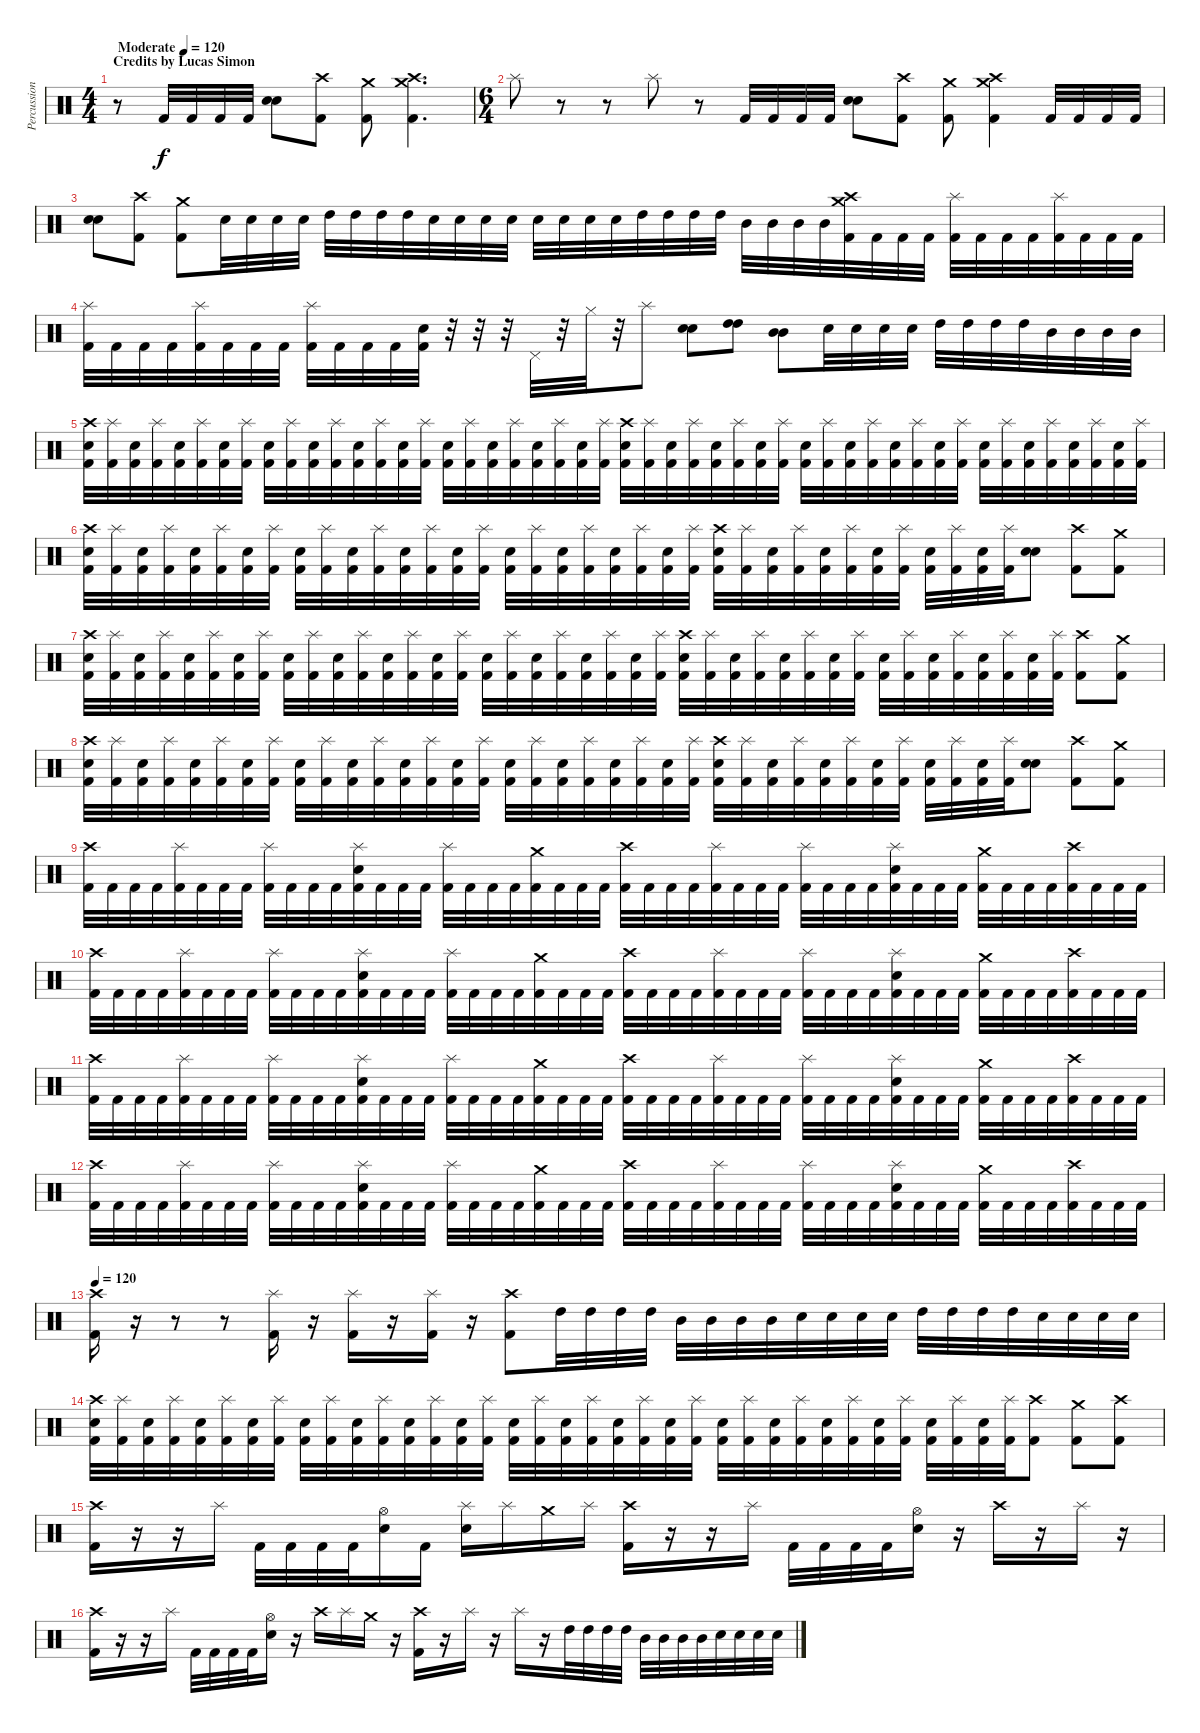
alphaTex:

\track ("Percussion" "Percussion") {instrument percussion}
\staff {score}
\articulation defaults
\ts (4 4)
\section ("" "Credits by Lucas Simon")
\tempo (120 "Moderate")
\tempo 110
\tempo (120 "Moderate")
\clef neutral
\ks c
r.8{dy f} "Kick (hit) 2".32 "Kick (hit) 2".32 "Kick (hit) 2".32 "Kick (hit) 2".32 ("Electric Snare (hit)" "Electric Snare (hit)").8 ("Kick (hit) 2" "Crash high (hit)").8 ("Kick (hit) 2" "Crash medium (hit)").8 ("Kick (hit) 2" "Crash medium (hit)" "Crash high (hit)").4{d} |
\ts (6 4)
"Splash (hit)".8 r.8 r.8 "Splash (hit)".8 r.8 "Kick (hit) 2".32 "Kick (hit) 2".32 "Kick (hit) 2".32 "Kick (hit) 2".32 ("Electric Snare (hit)" "Electric Snare (hit)").8 ("Kick (hit) 2" "Crash high (hit)").8 ("Kick (hit) 2" "Crash medium (hit)").8 ("Kick (hit) 2" "Crash medium (hit)" "Crash high (hit)").4 "Kick (hit) 2".32 "Kick (hit) 2".32 "Kick (hit) 2".32 "Kick (hit) 2".32 |
("Electric Snare (hit)" "Electric Snare (hit)").8 ("Kick (hit) 2" "Crash high (hit)").8 ("Kick (hit) 2" "Crash medium (hit)").8 "Electric Snare (hit)".32 "Electric Snare (hit)".32 "Electric Snare (hit)".32 "Electric Snare (hit)".32 "High Tom (hit)".32 "High Tom (hit)".32 "High Tom (hit)".32 "High Tom (hit)".32 "Electric Snare (hit)".32 "Electric Snare (hit)".32 "Electric Snare (hit)".32 "Electric Snare (hit)".32 "Electric Snare (hit)".32 "Electric Snare (hit)".32 "Electric Snare (hit)".32 "Electric Snare (hit)".32 "High Tom (hit)".32 "High Tom (hit)".32 "High Tom (hit)".32 "High Tom (hit)".32 "Mid Tom (hit)".32 "Mid Tom (hit)".32 "Mid Tom (hit)".32 "Mid Tom (hit)".32 ("Kick (hit) 2" "Crash medium (hit)" "Crash high (hit)").32 "Kick (hit) 2".32 "Kick (hit) 2".32 "Kick (hit) 2".32 ("Kick (hit) 2" "Splash (hit)").32 "Kick (hit) 2".32 "Kick (hit) 2".32 "Kick (hit) 2".32 ("Kick (hit) 2" "Splash (hit)").32 "Kick (hit) 2".32 "Kick (hit) 2".32 "Kick (hit) 2".32 |
("Kick (hit) 2" "Splash (hit)").32 "Kick (hit) 2".32 "Kick (hit) 2".32 "Kick (hit) 2".32 ("Kick (hit) 2" "Splash (hit)").32 "Kick (hit) 2".32 "Kick (hit) 2".32 "Kick (hit) 2".32 ("Kick (hit) 2" "Splash (hit)").32 "Kick (hit) 2".32 "Kick (hit) 2".32 "Kick (hit) 2".32 ("Kick (hit) 2" "Electric Snare (hit)").32 r.32 r.32 r.32 "Pedal Hi-Hat (hit)".32 r.32 "Hi-Hat (closed)".32 r.32 "Splash (hit)".8 ("Electric Snare (hit)" "Electric Snare (hit)").8 ("High Tom (hit)" "High Tom (hit)").8 ("Mid Tom (hit)" "Mid Tom (hit)").8 "Electric Snare (hit)".32 "Electric Snare (hit)".32 "Electric Snare (hit)".32 "Electric Snare (hit)".32 "High Tom (hit)".32 "High Tom (hit)".32 "High Tom (hit)".32 "High Tom (hit)".32 "Mid Tom (hit)".32 "Mid Tom (hit)".32 "Mid Tom (hit)".32 "Mid Tom (hit)".32 |
("Kick (hit) 2" "Electric Snare (hit)" "Crash high (hit)").32 ("Kick (hit) 2" "Splash (hit)").32 ("Kick (hit) 2" "Electric Snare (hit)").32 ("Kick (hit) 2" "Splash (hit)").32 ("Kick (hit) 2" "Electric Snare (hit)").32 ("Kick (hit) 2" "Splash (hit)").32 ("Kick (hit) 2" "Electric Snare (hit)").32 ("Kick (hit) 2" "Splash (hit)").32 ("Kick (hit) 2" "Electric Snare (hit)").32 ("Kick (hit) 2" "Splash (hit)").32 ("Kick (hit) 2" "Electric Snare (hit)").32 ("Kick (hit) 2" "Splash (hit)").32 ("Kick (hit) 2" "Electric Snare (hit)").32 ("Kick (hit) 2" "Splash (hit)").32 ("Kick (hit) 2" "Electric Snare (hit)").32 ("Kick (hit) 2" "Splash (hit)").32 ("Kick (hit) 2" "Electric Snare (hit)").32 ("Kick (hit) 2" "Splash (hit)").32 ("Kick (hit) 2" "Electric Snare (hit)").32 ("Kick (hit) 2" "Splash (hit)").32 ("Kick (hit) 2" "Electric Snare (hit)").32 ("Kick (hit) 2" "Splash (hit)").32 ("Kick (hit) 2" "Electric Snare (hit)").32 ("Kick (hit) 2" "Splash (hit)").32 ("Kick (hit) 2" "Electric Snare (hit)" "Crash high (hit)").32 ("Kick (hit) 2" "Splash (hit)").32 ("Kick (hit) 2" "Electric Snare (hit)").32 ("Kick (hit) 2" "Splash (hit)").32 ("Kick (hit) 2" "Electric Snare (hit)").32 ("Kick (hit) 2" "Splash (hit)").32 ("Kick (hit) 2" "Electric Snare (hit)").32 ("Kick (hit) 2" "Splash (hit)").32 ("Kick (hit) 2" "Electric Snare (hit)").32 ("Kick (hit) 2" "Splash (hit)").32 ("Kick (hit) 2" "Electric Snare (hit)").32 ("Kick (hit) 2" "Splash (hit)").32 ("Kick (hit) 2" "Electric Snare (hit)").32 ("Kick (hit) 2" "Splash (hit)").32 ("Kick (hit) 2" "Electric Snare (hit)").32 ("Kick (hit) 2" "Splash (hit)").32 ("Kick (hit) 2" "Electric Snare (hit)").32 ("Kick (hit) 2" "Splash (hit)").32 ("Kick (hit) 2" "Electric Snare (hit)").32 ("Kick (hit) 2" "Splash (hit)").32 ("Kick (hit) 2" "Electric Snare (hit)").32 ("Kick (hit) 2" "Splash (hit)").32 ("Kick (hit) 2" "Electric Snare (hit)").32 ("Kick (hit) 2" "Splash (hit)").32 |
("Kick (hit) 2" "Electric Snare (hit)" "Crash high (hit)").32 ("Kick (hit) 2" "Splash (hit)").32 ("Kick (hit) 2" "Electric Snare (hit)").32 ("Kick (hit) 2" "Splash (hit)").32 ("Kick (hit) 2" "Electric Snare (hit)").32 ("Kick (hit) 2" "Splash (hit)").32 ("Kick (hit) 2" "Electric Snare (hit)").32 ("Kick (hit) 2" "Splash (hit)").32 ("Kick (hit) 2" "Electric Snare (hit)").32 ("Kick (hit) 2" "Splash (hit)").32 ("Kick (hit) 2" "Electric Snare (hit)").32 ("Kick (hit) 2" "Splash (hit)").32 ("Kick (hit) 2" "Electric Snare (hit)").32 ("Kick (hit) 2" "Splash (hit)").32 ("Kick (hit) 2" "Electric Snare (hit)").32 ("Kick (hit) 2" "Splash (hit)").32 ("Kick (hit) 2" "Electric Snare (hit)").32 ("Kick (hit) 2" "Splash (hit)").32 ("Kick (hit) 2" "Electric Snare (hit)").32 ("Kick (hit) 2" "Splash (hit)").32 ("Kick (hit) 2" "Electric Snare (hit)").32 ("Kick (hit) 2" "Splash (hit)").32 ("Kick (hit) 2" "Electric Snare (hit)").32 ("Kick (hit) 2" "Splash (hit)").32 ("Kick (hit) 2" "Electric Snare (hit)" "Crash high (hit)").32 ("Kick (hit) 2" "Splash (hit)").32 ("Kick (hit) 2" "Electric Snare (hit)").32 ("Kick (hit) 2" "Splash (hit)").32 ("Kick (hit) 2" "Electric Snare (hit)").32 ("Kick (hit) 2" "Splash (hit)").32 ("Kick (hit) 2" "Electric Snare (hit)").32 ("Kick (hit) 2" "Splash (hit)").32 ("Kick (hit) 2" "Electric Snare (hit)").32 ("Kick (hit) 2" "Splash (hit)").32 ("Kick (hit) 2" "Electric Snare (hit)").32 ("Kick (hit) 2" "Splash (hit)").32 ("Electric Snare (hit)" "Electric Snare (hit)").8 ("Kick (hit) 2" "Crash high (hit)").8 ("Kick (hit) 2" "Crash medium (hit)").8 |
("Kick (hit) 2" "Electric Snare (hit)" "Crash high (hit)").32 ("Kick (hit) 2" "Splash (hit)").32 ("Kick (hit) 2" "Electric Snare (hit)").32 ("Kick (hit) 2" "Splash (hit)").32 ("Kick (hit) 2" "Electric Snare (hit)").32 ("Kick (hit) 2" "Splash (hit)").32 ("Kick (hit) 2" "Electric Snare (hit)").32 ("Kick (hit) 2" "Splash (hit)").32 ("Kick (hit) 2" "Electric Snare (hit)").32 ("Kick (hit) 2" "Splash (hit)").32 ("Kick (hit) 2" "Electric Snare (hit)").32 ("Kick (hit) 2" "Splash (hit)").32 ("Kick (hit) 2" "Electric Snare (hit)").32 ("Kick (hit) 2" "Splash (hit)").32 ("Kick (hit) 2" "Electric Snare (hit)").32 ("Kick (hit) 2" "Splash (hit)").32 ("Kick (hit) 2" "Electric Snare (hit)").32 ("Kick (hit) 2" "Splash (hit)").32 ("Kick (hit) 2" "Electric Snare (hit)").32 ("Kick (hit) 2" "Splash (hit)").32 ("Kick (hit) 2" "Electric Snare (hit)").32 ("Kick (hit) 2" "Splash (hit)").32 ("Kick (hit) 2" "Electric Snare (hit)").32 ("Kick (hit) 2" "Splash (hit)").32 ("Kick (hit) 2" "Electric Snare (hit)" "Crash high (hit)").32 ("Kick (hit) 2" "Splash (hit)").32 ("Kick (hit) 2" "Electric Snare (hit)").32 ("Kick (hit) 2" "Splash (hit)").32 ("Kick (hit) 2" "Electric Snare (hit)").32 ("Kick (hit) 2" "Splash (hit)").32 ("Kick (hit) 2" "Electric Snare (hit)").32 ("Kick (hit) 2" "Splash (hit)").32 ("Kick (hit) 2" "Electric Snare (hit)").32 ("Kick (hit) 2" "Splash (hit)").32 ("Kick (hit) 2" "Electric Snare (hit)").32 ("Kick (hit) 2" "Splash (hit)").32 ("Kick (hit) 2" "Electric Snare (hit)").32 ("Kick (hit) 2" "Splash (hit)").32 ("Kick (hit) 2" "Electric Snare (hit)").32 ("Kick (hit) 2" "Splash (hit)").32 ("Kick (hit) 2" "Crash high (hit)").8 ("Kick (hit) 2" "Crash medium (hit)").8 |
("Kick (hit) 2" "Electric Snare (hit)" "Crash high (hit)").32 ("Kick (hit) 2" "Splash (hit)").32 ("Kick (hit) 2" "Electric Snare (hit)").32 ("Kick (hit) 2" "Splash (hit)").32 ("Kick (hit) 2" "Electric Snare (hit)").32 ("Kick (hit) 2" "Splash (hit)").32 ("Kick (hit) 2" "Electric Snare (hit)").32 ("Kick (hit) 2" "Splash (hit)").32 ("Kick (hit) 2" "Electric Snare (hit)").32 ("Kick (hit) 2" "Splash (hit)").32 ("Kick (hit) 2" "Electric Snare (hit)").32 ("Kick (hit) 2" "Splash (hit)").32 ("Kick (hit) 2" "Electric Snare (hit)").32 ("Kick (hit) 2" "Splash (hit)").32 ("Kick (hit) 2" "Electric Snare (hit)").32 ("Kick (hit) 2" "Splash (hit)").32 ("Kick (hit) 2" "Electric Snare (hit)").32 ("Kick (hit) 2" "Splash (hit)").32 ("Kick (hit) 2" "Electric Snare (hit)").32 ("Kick (hit) 2" "Splash (hit)").32 ("Kick (hit) 2" "Electric Snare (hit)").32 ("Kick (hit) 2" "Splash (hit)").32 ("Kick (hit) 2" "Electric Snare (hit)").32 ("Kick (hit) 2" "Splash (hit)").32 ("Kick (hit) 2" "Electric Snare (hit)" "Crash high (hit)").32 ("Kick (hit) 2" "Splash (hit)").32 ("Kick (hit) 2" "Electric Snare (hit)").32 ("Kick (hit) 2" "Splash (hit)").32 ("Kick (hit) 2" "Electric Snare (hit)").32 ("Kick (hit) 2" "Splash (hit)").32 ("Kick (hit) 2" "Electric Snare (hit)").32 ("Kick (hit) 2" "Splash (hit)").32 ("Kick (hit) 2" "Electric Snare (hit)").32 ("Kick (hit) 2" "Splash (hit)").32 ("Kick (hit) 2" "Electric Snare (hit)").32 ("Kick (hit) 2" "Splash (hit)").32 ("Electric Snare (hit)" "Electric Snare (hit)").8 ("Kick (hit) 2" "Crash high (hit)").8 ("Kick (hit) 2" "Crash medium (hit)").8 |
("Kick (hit) 2" "Crash high (hit)").32 "Kick (hit) 2".32 "Kick (hit) 2".32 "Kick (hit) 2".32 ("Kick (hit) 2" "Splash (hit)").32 "Kick (hit) 2".32 "Kick (hit) 2".32 "Kick (hit) 2".32 ("Kick (hit) 2" "Splash (hit)").32 "Kick (hit) 2".32 "Kick (hit) 2".32 "Kick (hit) 2".32 ("Kick (hit) 2" "Electric Snare (hit)" "Splash (hit)").32 "Kick (hit) 2".32 "Kick (hit) 2".32 "Kick (hit) 2".32 ("Kick (hit) 2" "Splash (hit)").32 "Kick (hit) 2".32 "Kick (hit) 2".32 "Kick (hit) 2".32 ("Kick (hit) 2" "Crash medium (hit)").32 "Kick (hit) 2".32 "Kick (hit) 2".32 "Kick (hit) 2".32 ("Kick (hit) 2" "Crash high (hit)").32 "Kick (hit) 2".32 "Kick (hit) 2".32 "Kick (hit) 2".32 ("Kick (hit) 2" "Splash (hit)").32 "Kick (hit) 2".32 "Kick (hit) 2".32 "Kick (hit) 2".32 ("Kick (hit) 2" "Splash (hit)").32 "Kick (hit) 2".32 "Kick (hit) 2".32 "Kick (hit) 2".32 ("Kick (hit) 2" "Electric Snare (hit)" "Splash (hit)").32 "Kick (hit) 2".32 "Kick (hit) 2".32 "Kick (hit) 2".32 ("Kick (hit) 2" "Crash medium (hit)").32 "Kick (hit) 2".32 "Kick (hit) 2".32 "Kick (hit) 2".32 ("Kick (hit) 2" "Crash high (hit)").32 "Kick (hit) 2".32 "Kick (hit) 2".32 "Kick (hit) 2".32 |
("Kick (hit) 2" "Crash high (hit)").32 "Kick (hit) 2".32 "Kick (hit) 2".32 "Kick (hit) 2".32 ("Kick (hit) 2" "Splash (hit)").32 "Kick (hit) 2".32 "Kick (hit) 2".32 "Kick (hit) 2".32 ("Kick (hit) 2" "Splash (hit)").32 "Kick (hit) 2".32 "Kick (hit) 2".32 "Kick (hit) 2".32 ("Kick (hit) 2" "Electric Snare (hit)" "Splash (hit)").32 "Kick (hit) 2".32 "Kick (hit) 2".32 "Kick (hit) 2".32 ("Kick (hit) 2" "Splash (hit)").32 "Kick (hit) 2".32 "Kick (hit) 2".32 "Kick (hit) 2".32 ("Kick (hit) 2" "Crash medium (hit)").32 "Kick (hit) 2".32 "Kick (hit) 2".32 "Kick (hit) 2".32 ("Kick (hit) 2" "Crash high (hit)").32 "Kick (hit) 2".32 "Kick (hit) 2".32 "Kick (hit) 2".32 ("Kick (hit) 2" "Splash (hit)").32 "Kick (hit) 2".32 "Kick (hit) 2".32 "Kick (hit) 2".32 ("Kick (hit) 2" "Splash (hit)").32 "Kick (hit) 2".32 "Kick (hit) 2".32 "Kick (hit) 2".32 ("Kick (hit) 2" "Electric Snare (hit)" "Splash (hit)").32 "Kick (hit) 2".32 "Kick (hit) 2".32 "Kick (hit) 2".32 ("Kick (hit) 2" "Crash medium (hit)").32 "Kick (hit) 2".32 "Kick (hit) 2".32 "Kick (hit) 2".32 ("Kick (hit) 2" "Crash high (hit)").32 "Kick (hit) 2".32 "Kick (hit) 2".32 "Kick (hit) 2".32 |
("Kick (hit) 2" "Crash high (hit)").32 "Kick (hit) 2".32 "Kick (hit) 2".32 "Kick (hit) 2".32 ("Kick (hit) 2" "Splash (hit)").32 "Kick (hit) 2".32 "Kick (hit) 2".32 "Kick (hit) 2".32 ("Kick (hit) 2" "Splash (hit)").32 "Kick (hit) 2".32 "Kick (hit) 2".32 "Kick (hit) 2".32 ("Kick (hit) 2" "Electric Snare (hit)" "Splash (hit)").32 "Kick (hit) 2".32 "Kick (hit) 2".32 "Kick (hit) 2".32 ("Kick (hit) 2" "Splash (hit)").32 "Kick (hit) 2".32 "Kick (hit) 2".32 "Kick (hit) 2".32 ("Kick (hit) 2" "Crash medium (hit)").32 "Kick (hit) 2".32 "Kick (hit) 2".32 "Kick (hit) 2".32 ("Kick (hit) 2" "Crash high (hit)").32 "Kick (hit) 2".32 "Kick (hit) 2".32 "Kick (hit) 2".32 ("Kick (hit) 2" "Splash (hit)").32 "Kick (hit) 2".32 "Kick (hit) 2".32 "Kick (hit) 2".32 ("Kick (hit) 2" "Splash (hit)").32 "Kick (hit) 2".32 "Kick (hit) 2".32 "Kick (hit) 2".32 ("Kick (hit) 2" "Electric Snare (hit)" "Splash (hit)").32 "Kick (hit) 2".32 "Kick (hit) 2".32 "Kick (hit) 2".32 ("Kick (hit) 2" "Crash medium (hit)").32 "Kick (hit) 2".32 "Kick (hit) 2".32 "Kick (hit) 2".32 ("Kick (hit) 2" "Crash high (hit)").32 "Kick (hit) 2".32 "Kick (hit) 2".32 "Kick (hit) 2".32 |
("Kick (hit) 2" "Crash high (hit)").32 "Kick (hit) 2".32 "Kick (hit) 2".32 "Kick (hit) 2".32 ("Kick (hit) 2" "Splash (hit)").32 "Kick (hit) 2".32 "Kick (hit) 2".32 "Kick (hit) 2".32 ("Kick (hit) 2" "Splash (hit)").32 "Kick (hit) 2".32 "Kick (hit) 2".32 "Kick (hit) 2".32 ("Kick (hit) 2" "Electric Snare (hit)" "Splash (hit)").32 "Kick (hit) 2".32 "Kick (hit) 2".32 "Kick (hit) 2".32 ("Kick (hit) 2" "Splash (hit)").32 "Kick (hit) 2".32 "Kick (hit) 2".32 "Kick (hit) 2".32 ("Kick (hit) 2" "Crash medium (hit)").32 "Kick (hit) 2".32 "Kick (hit) 2".32 "Kick (hit) 2".32 ("Kick (hit) 2" "Crash high (hit)").32 "Kick (hit) 2".32 "Kick (hit) 2".32 "Kick (hit) 2".32 ("Kick (hit) 2" "Splash (hit)").32 "Kick (hit) 2".32 "Kick (hit) 2".32 "Kick (hit) 2".32 ("Kick (hit) 2" "Splash (hit)").32 "Kick (hit) 2".32 "Kick (hit) 2".32 "Kick (hit) 2".32 ("Kick (hit) 2" "Electric Snare (hit)" "Splash (hit)").32 "Kick (hit) 2".32 "Kick (hit) 2".32 "Kick (hit) 2".32 ("Kick (hit) 2" "Crash medium (hit)").32 "Kick (hit) 2".32 "Kick (hit) 2".32 "Kick (hit) 2".32 ("Kick (hit) 2" "Crash high (hit)").32 "Kick (hit) 2".32 "Kick (hit) 2".32 "Kick (hit) 2".32 |
\tempo 120
("Kick (hit) 2" "Crash high (hit)").16 r.16 r.8 r.8 ("Kick (hit) 2" "Splash (hit)").16 r.16 ("Kick (hit) 2" "Splash (hit)").16 r.16 ("Kick (hit) 2" "Splash (hit)").16 r.16 ("Kick (hit) 2" "Crash high (hit)").8 "High Tom (hit)".32 "High Tom (hit)".32 "High Tom (hit)".32 "High Tom (hit)".32 "Mid Tom (hit)".32 "Mid Tom (hit)".32 "Mid Tom (hit)".32 "Mid Tom (hit)".32 "Electric Snare (hit)".32 "Electric Snare (hit)".32 "Electric Snare (hit)".32 "Electric Snare (hit)".32 "High Tom (hit)".32 "High Tom (hit)".32 "High Tom (hit)".32 "High Tom (hit)".32 "Electric Snare (hit)".32 "Electric Snare (hit)".32 "Electric Snare (hit)".32 "Electric Snare (hit)".32 |
("Kick (hit) 2" "Electric Snare (hit)" "Crash high (hit)").32 ("Kick (hit) 2" "Splash (hit)").32 ("Kick (hit) 2" "Electric Snare (hit)").32 ("Kick (hit) 2" "Splash (hit)").32 ("Kick (hit) 2" "Electric Snare (hit)").32 ("Kick (hit) 2" "Splash (hit)").32 ("Kick (hit) 2" "Electric Snare (hit)").32 ("Kick (hit) 2" "Splash (hit)").32 ("Kick (hit) 2" "Electric Snare (hit)").32 ("Kick (hit) 2" "Splash (hit)").32 ("Kick (hit) 2" "Electric Snare (hit)").32 ("Kick (hit) 2" "Splash (hit)").32 ("Kick (hit) 2" "Electric Snare (hit)").32 ("Kick (hit) 2" "Splash (hit)").32 ("Kick (hit) 2" "Electric Snare (hit)").32 ("Kick (hit) 2" "Splash (hit)").32 ("Kick (hit) 2" "Electric Snare (hit)").32 ("Kick (hit) 2" "Splash (hit)").32 ("Kick (hit) 2" "Electric Snare (hit)").32 ("Kick (hit) 2" "Splash (hit)").32 ("Kick (hit) 2" "Electric Snare (hit)").32 ("Kick (hit) 2" "Splash (hit)").32 ("Kick (hit) 2" "Electric Snare (hit)").32 ("Kick (hit) 2" "Splash (hit)").32 ("Kick (hit) 2" "Electric Snare (hit)").32 ("Kick (hit) 2" "Splash (hit)").32 ("Kick (hit) 2" "Electric Snare (hit)").32 ("Kick (hit) 2" "Splash (hit)").32 ("Kick (hit) 2" "Electric Snare (hit)").32 ("Kick (hit) 2" "Splash (hit)").32 ("Kick (hit) 2" "Electric Snare (hit)").32 ("Kick (hit) 2" "Splash (hit)").32 ("Kick (hit) 2" "Electric Snare (hit)").32 ("Kick (hit) 2" "Splash (hit)").32 ("Kick (hit) 2" "Electric Snare (hit)").32 ("Kick (hit) 2" "Splash (hit)").32 ("Kick (hit) 2" "Crash high (hit)").8 ("Kick (hit) 2" "Crash medium (hit)").8 ("Kick (hit) 2" "Crash high (hit)").8 |
("Kick (hit) 2" "Crash high (hit)").16 r.16 r.16 "Splash (hit)".16 "Kick (hit) 2".32 "Kick (hit) 2".32 "Kick (hit) 2".32 "Kick (hit) 2".32 ("Electric Snare (hit)" "Hi-Hat (open)").16 "Kick (hit) 2".16 ("Electric Snare (hit)" "Splash (hit)").16 "Splash (hit)".16 "Crash medium (hit)".16 "Splash (hit)".16 ("Kick (hit) 2" "Crash high (hit)").16 r.16 r.16 "Splash (hit)".16 "Kick (hit) 2".32 "Kick (hit) 2".32 "Kick (hit) 2".32 "Kick (hit) 2".32 ("Electric Snare (hit)" "Hi-Hat (open)").16 r.16 "Crash high (hit)".16 r.16 "Splash (hit)".16 r.16 |
("Kick (hit) 2" "Crash high (hit)").16 r.16 r.16 "Splash (hit)".16 "Kick (hit) 2".32 "Kick (hit) 2".32 "Kick (hit) 2".32 "Kick (hit) 2".32 ("Electric Snare (hit)" "Hi-Hat (open)").16 r.16 "Crash high (hit)".16 "Splash (hit)".16 "Crash medium (hit)".16 r.16 ("Kick (hit) 2" "Crash high (hit)").16 r.16 "Splash (hit)".16 r.16 "Splash (hit)".16 r.16 "High Tom (hit)".32 "High Tom (hit)".32 "High Tom (hit)".32 "High Tom (hit)".32 "Mid Tom (hit)".32 "Mid Tom (hit)".32 "Mid Tom (hit)".32 "Mid Tom (hit)".32 "Electric Snare (hit)".32 "Electric Snare (hit)".32 "Electric Snare (hit)".32 "Electric Snare (hit)".32
